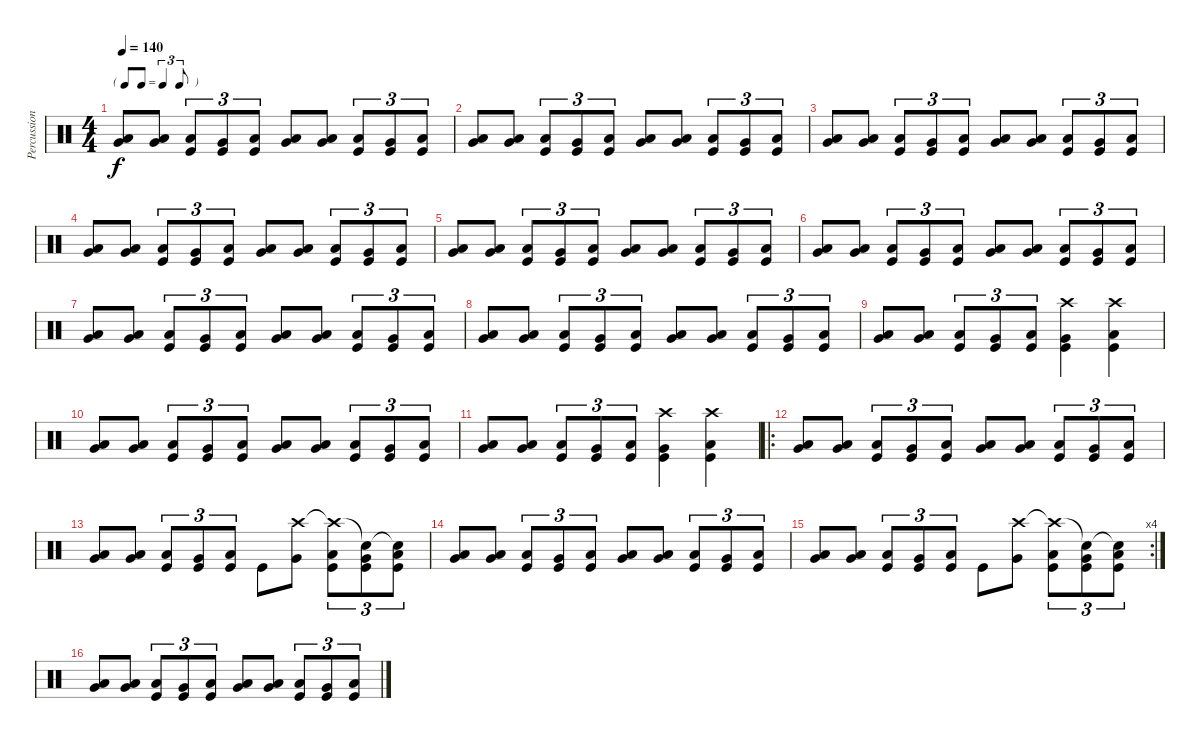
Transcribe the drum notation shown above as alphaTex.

\track ("Percussion" "Percussion") {instrument percussion}
\staff {score}
\articulation defaults
\ts (4 4)
\tf triplet8th
\tempo 140
\clef neutral
\ks c
("Very Low Tom (hit)" "Low Floor Tom (hit)").8{dy f} ("Very Low Tom (hit)" "Low Floor Tom (hit)").8 ("Low Floor Tom (hit)" "Kick (hit)").8{tu (3 2)} ("Very Low Tom (hit)" "Kick (hit)").8{tu (3 2)} ("Low Floor Tom (hit)" "Kick (hit)").8{tu (3 2)} ("Very Low Tom (hit)" "Low Floor Tom (hit)").8 ("Very Low Tom (hit)" "Low Floor Tom (hit)").8 ("Low Floor Tom (hit)" "Kick (hit)").8{tu (3 2)} ("Very Low Tom (hit)" "Kick (hit)").8{tu (3 2)} ("Low Floor Tom (hit)" "Kick (hit)").8{tu (3 2)} |
("Very Low Tom (hit)" "Low Floor Tom (hit)").8 ("Very Low Tom (hit)" "Low Floor Tom (hit)").8 ("Low Floor Tom (hit)" "Kick (hit)").8{tu (3 2)} ("Very Low Tom (hit)" "Kick (hit)").8{tu (3 2)} ("Low Floor Tom (hit)" "Kick (hit)").8{tu (3 2)} ("Very Low Tom (hit)" "Low Floor Tom (hit)").8 ("Very Low Tom (hit)" "Low Floor Tom (hit)").8 ("Low Floor Tom (hit)" "Kick (hit)").8{tu (3 2)} ("Very Low Tom (hit)" "Kick (hit)").8{tu (3 2)} ("Low Floor Tom (hit)" "Kick (hit)").8{tu (3 2)} |
("Very Low Tom (hit)" "Low Floor Tom (hit)").8 ("Very Low Tom (hit)" "Low Floor Tom (hit)").8 ("Low Floor Tom (hit)" "Kick (hit)").8{tu (3 2)} ("Very Low Tom (hit)" "Kick (hit)").8{tu (3 2)} ("Low Floor Tom (hit)" "Kick (hit)").8{tu (3 2)} ("Very Low Tom (hit)" "Low Floor Tom (hit)").8 ("Very Low Tom (hit)" "Low Floor Tom (hit)").8 ("Low Floor Tom (hit)" "Kick (hit)").8{tu (3 2)} ("Very Low Tom (hit)" "Kick (hit)").8{tu (3 2)} ("Low Floor Tom (hit)" "Kick (hit)").8{tu (3 2)} |
("Very Low Tom (hit)" "Low Floor Tom (hit)").8 ("Very Low Tom (hit)" "Low Floor Tom (hit)").8 ("Low Floor Tom (hit)" "Kick (hit)").8{tu (3 2)} ("Very Low Tom (hit)" "Kick (hit)").8{tu (3 2)} ("Low Floor Tom (hit)" "Kick (hit)").8{tu (3 2)} ("Very Low Tom (hit)" "Low Floor Tom (hit)").8 ("Very Low Tom (hit)" "Low Floor Tom (hit)").8 ("Low Floor Tom (hit)" "Kick (hit)").8{tu (3 2)} ("Very Low Tom (hit)" "Kick (hit)").8{tu (3 2)} ("Low Floor Tom (hit)" "Kick (hit)").8{tu (3 2)} |
("Very Low Tom (hit)" "Low Floor Tom (hit)").8 ("Very Low Tom (hit)" "Low Floor Tom (hit)").8 ("Low Floor Tom (hit)" "Kick (hit)").8{tu (3 2)} ("Very Low Tom (hit)" "Kick (hit)").8{tu (3 2)} ("Low Floor Tom (hit)" "Kick (hit)").8{tu (3 2)} ("Very Low Tom (hit)" "Low Floor Tom (hit)").8 ("Very Low Tom (hit)" "Low Floor Tom (hit)").8 ("Low Floor Tom (hit)" "Kick (hit)").8{tu (3 2)} ("Very Low Tom (hit)" "Kick (hit)").8{tu (3 2)} ("Low Floor Tom (hit)" "Kick (hit)").8{tu (3 2)} |
("Very Low Tom (hit)" "Low Floor Tom (hit)").8 ("Very Low Tom (hit)" "Low Floor Tom (hit)").8 ("Low Floor Tom (hit)" "Kick (hit)").8{tu (3 2)} ("Very Low Tom (hit)" "Kick (hit)").8{tu (3 2)} ("Low Floor Tom (hit)" "Kick (hit)").8{tu (3 2)} ("Very Low Tom (hit)" "Low Floor Tom (hit)").8 ("Very Low Tom (hit)" "Low Floor Tom (hit)").8 ("Low Floor Tom (hit)" "Kick (hit)").8{tu (3 2)} ("Very Low Tom (hit)" "Kick (hit)").8{tu (3 2)} ("Low Floor Tom (hit)" "Kick (hit)").8{tu (3 2)} |
("Very Low Tom (hit)" "Low Floor Tom (hit)").8 ("Very Low Tom (hit)" "Low Floor Tom (hit)").8 ("Low Floor Tom (hit)" "Kick (hit)").8{tu (3 2)} ("Very Low Tom (hit)" "Kick (hit)").8{tu (3 2)} ("Low Floor Tom (hit)" "Kick (hit)").8{tu (3 2)} ("Very Low Tom (hit)" "Low Floor Tom (hit)").8 ("Very Low Tom (hit)" "Low Floor Tom (hit)").8 ("Low Floor Tom (hit)" "Kick (hit)").8{tu (3 2)} ("Very Low Tom (hit)" "Kick (hit)").8{tu (3 2)} ("Low Floor Tom (hit)" "Kick (hit)").8{tu (3 2)} |
("Very Low Tom (hit)" "Low Floor Tom (hit)").8 ("Very Low Tom (hit)" "Low Floor Tom (hit)").8 ("Low Floor Tom (hit)" "Kick (hit)").8{tu (3 2)} ("Very Low Tom (hit)" "Kick (hit)").8{tu (3 2)} ("Low Floor Tom (hit)" "Kick (hit)").8{tu (3 2)} ("Very Low Tom (hit)" "Low Floor Tom (hit)").8 ("Very Low Tom (hit)" "Low Floor Tom (hit)").8 ("Low Floor Tom (hit)" "Kick (hit)").8{tu (3 2)} ("Very Low Tom (hit)" "Kick (hit)").8{tu (3 2)} ("Low Floor Tom (hit)" "Kick (hit)").8{tu (3 2)} |
("Very Low Tom (hit)" "Low Floor Tom (hit)").8 ("Very Low Tom (hit)" "Low Floor Tom (hit)").8 ("Low Floor Tom (hit)" "Kick (hit)").8{tu (3 2)} ("Very Low Tom (hit)" "Kick (hit)").8{tu (3 2)} ("Low Floor Tom (hit)" "Kick (hit)").8{tu (3 2)} ("Crash high (hit)" "Very Low Tom (hit)" "Kick (hit)").4 ("Crash high (hit)" "Low Floor Tom (hit)" "Kick (hit)").4 |
("Very Low Tom (hit)" "Low Floor Tom (hit)").8 ("Very Low Tom (hit)" "Low Floor Tom (hit)").8 ("Low Floor Tom (hit)" "Kick (hit)").8{tu (3 2)} ("Very Low Tom (hit)" "Kick (hit)").8{tu (3 2)} ("Low Floor Tom (hit)" "Kick (hit)").8{tu (3 2)} ("Very Low Tom (hit)" "Low Floor Tom (hit)").8 ("Very Low Tom (hit)" "Low Floor Tom (hit)").8 ("Low Floor Tom (hit)" "Kick (hit)").8{tu (3 2)} ("Very Low Tom (hit)" "Kick (hit)").8{tu (3 2)} ("Low Floor Tom (hit)" "Kick (hit)").8{tu (3 2)} |
("Very Low Tom (hit)" "Low Floor Tom (hit)").8 ("Very Low Tom (hit)" "Low Floor Tom (hit)").8 ("Low Floor Tom (hit)" "Kick (hit)").8{tu (3 2)} ("Very Low Tom (hit)" "Kick (hit)").8{tu (3 2)} ("Low Floor Tom (hit)" "Kick (hit)").8{tu (3 2)} ("Crash high (hit)" "Very Low Tom (hit)" "Kick (hit)").4 ("Crash high (hit)" "Low Floor Tom (hit)" "Kick (hit)").4 |
\ro
("Very Low Tom (hit)" "Low Floor Tom (hit)").8 ("Very Low Tom (hit)" "Low Floor Tom (hit)").8 ("Low Floor Tom (hit)" "Kick (hit)").8{tu (3 2)} ("Very Low Tom (hit)" "Kick (hit)").8{tu (3 2)} ("Low Floor Tom (hit)" "Kick (hit)").8{tu (3 2)} ("Very Low Tom (hit)" "Low Floor Tom (hit)").8 ("Very Low Tom (hit)" "Low Floor Tom (hit)").8 ("Low Floor Tom (hit)" "Kick (hit)").8{tu (3 2)} ("Very Low Tom (hit)" "Kick (hit)").8{tu (3 2)} ("Low Floor Tom (hit)" "Kick (hit)").8{tu (3 2)} |
("Very Low Tom (hit)" "Low Floor Tom (hit)").8 ("Very Low Tom (hit)" "Low Floor Tom (hit)").8 ("Low Floor Tom (hit)" "Kick (hit)").8{tu (3 2)} ("Very Low Tom (hit)" "Kick (hit)").8{tu (3 2)} ("Low Floor Tom (hit)" "Kick (hit)").8{tu (3 2)} "Kick (hit)".8 ("Crash high (hit)" "Very Low Tom (hit)").8 ("Crash high (hit)"{t} "Low Floor Tom (hit)" "Kick (hit)").8{tu (3 2)} ("Snare (hit)"{t} "Very Low Tom (hit)" "Kick (hit)").8{tu (3 2)} ("Snare (hit)"{t} "Low Floor Tom (hit)" "Kick (hit)").8{tu (3 2)} |
("Very Low Tom (hit)" "Low Floor Tom (hit)").8 ("Very Low Tom (hit)" "Low Floor Tom (hit)").8 ("Low Floor Tom (hit)" "Kick (hit)").8{tu (3 2)} ("Very Low Tom (hit)" "Kick (hit)").8{tu (3 2)} ("Low Floor Tom (hit)" "Kick (hit)").8{tu (3 2)} ("Very Low Tom (hit)" "Low Floor Tom (hit)").8 ("Very Low Tom (hit)" "Low Floor Tom (hit)").8 ("Low Floor Tom (hit)" "Kick (hit)").8{tu (3 2)} ("Very Low Tom (hit)" "Kick (hit)").8{tu (3 2)} ("Low Floor Tom (hit)" "Kick (hit)").8{tu (3 2)} |
\rc 4
("Very Low Tom (hit)" "Low Floor Tom (hit)").8 ("Very Low Tom (hit)" "Low Floor Tom (hit)").8 ("Low Floor Tom (hit)" "Kick (hit)").8{tu (3 2)} ("Very Low Tom (hit)" "Kick (hit)").8{tu (3 2)} ("Low Floor Tom (hit)" "Kick (hit)").8{tu (3 2)} "Kick (hit)".8 ("Crash high (hit)" "Very Low Tom (hit)").8 ("Crash high (hit)"{t} "Low Floor Tom (hit)" "Kick (hit)").8{tu (3 2)} ("Snare (hit)"{t} "Very Low Tom (hit)" "Kick (hit)").8{tu (3 2)} ("Snare (hit)"{t} "Low Floor Tom (hit)" "Kick (hit)").8{tu (3 2)} |
("Very Low Tom (hit)" "Low Floor Tom (hit)").8 ("Very Low Tom (hit)" "Low Floor Tom (hit)").8 ("Low Floor Tom (hit)" "Kick (hit)").8{tu (3 2)} ("Very Low Tom (hit)" "Kick (hit)").8{tu (3 2)} ("Low Floor Tom (hit)" "Kick (hit)").8{tu (3 2)} ("Very Low Tom (hit)" "Low Floor Tom (hit)").8 ("Very Low Tom (hit)" "Low Floor Tom (hit)").8 ("Low Floor Tom (hit)" "Kick (hit)").8{tu (3 2)} ("Very Low Tom (hit)" "Kick (hit)").8{tu (3 2)} ("Low Floor Tom (hit)" "Kick (hit)").8{tu (3 2)}
